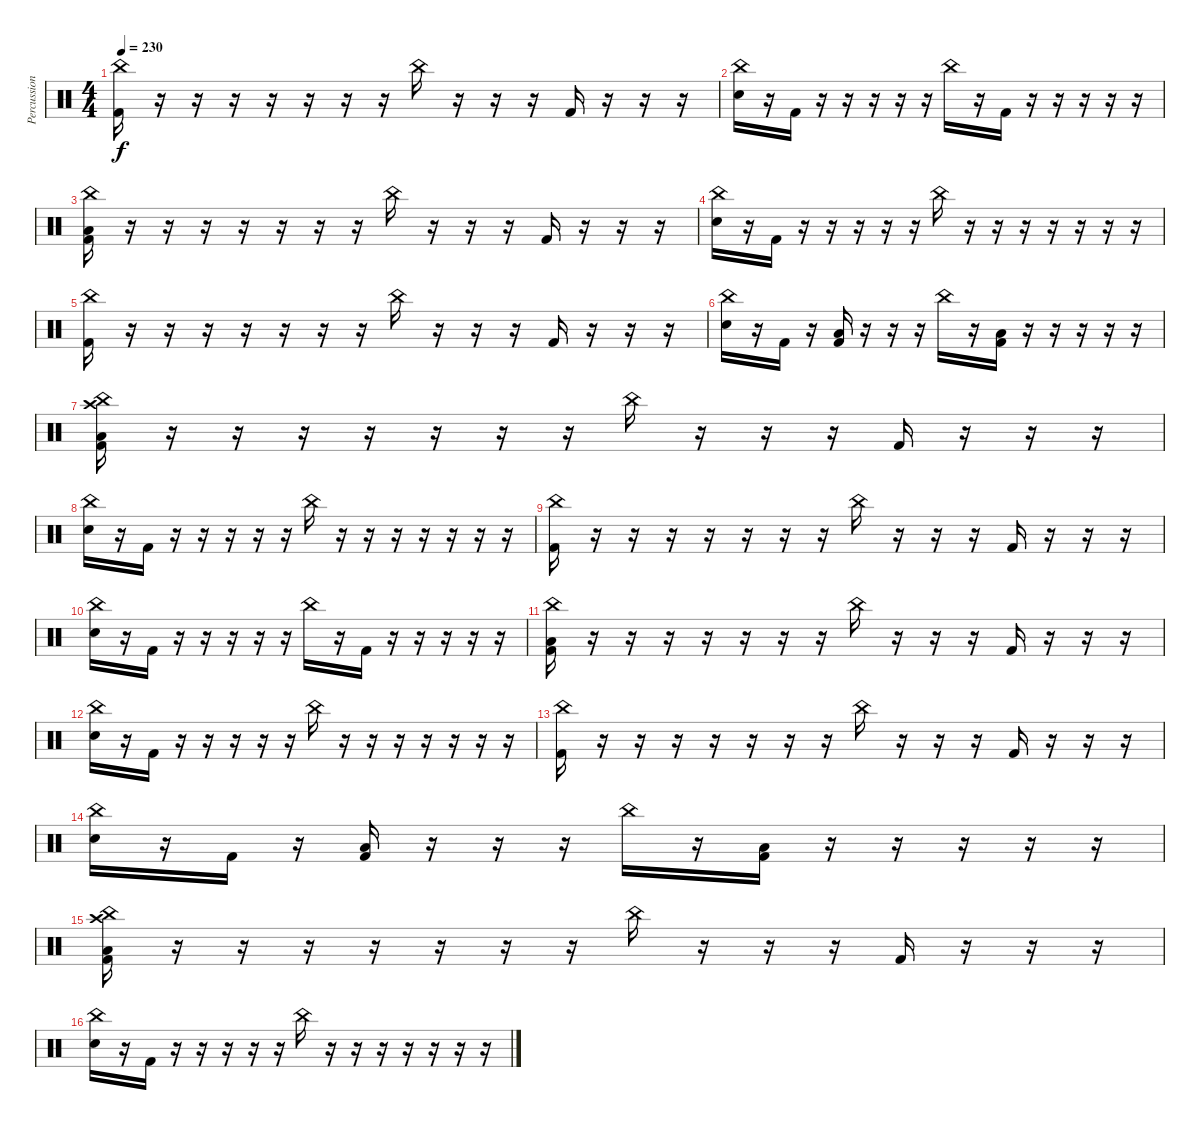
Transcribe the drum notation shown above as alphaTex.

\track ("Percussion" "Percussion") {instrument percussion}
\staff {score}
\articulation defaults
\ts (4 4)
\tempo 230
\clef neutral
\ks c
("China (hit)" "Kick (hit) 2").16{dy f} r.16 r.16 r.16 r.16 r.16 r.16 r.16 "China (hit)".16 r.16 r.16 r.16 "Kick (hit) 2".16 r.16 r.16 r.16 |
("China (hit)" "Electric Snare (hit)").16 r.16 "Kick (hit) 2".16 r.16 r.16 r.16 r.16 r.16 "China (hit)".16 r.16 "Kick (hit) 2".16 r.16 r.16 r.16 r.16 r.16 |
("China (hit)" "Low Floor Tom (hit)" "Kick (hit) 2").16 r.16 r.16 r.16 r.16 r.16 r.16 r.16 "China (hit)".16 r.16 r.16 r.16 "Kick (hit) 2".16 r.16 r.16 r.16 |
("China (hit)" "Electric Snare (hit)").16 r.16 "Kick (hit) 2".16 r.16 r.16 r.16 r.16 r.16 "China (hit)".16 r.16 r.16 r.16 r.16 r.16 r.16 r.16 |
("China (hit)" "Kick (hit) 2").16 r.16 r.16 r.16 r.16 r.16 r.16 r.16 "China (hit)".16 r.16 r.16 r.16 "Kick (hit) 2".16 r.16 r.16 r.16 |
("China (hit)" "Electric Snare (hit)").16 r.16 "Kick (hit) 2".16 r.16 ("Low Floor Tom (hit)" "Kick (hit) 2").16 r.16 r.16 r.16 "China (hit)".16 r.16 ("Low Floor Tom (hit)" "Kick (hit) 2").16 r.16 r.16 r.16 r.16 r.16 |
("China (hit)" "Crash high (hit)" "Low Floor Tom (hit)" "Kick (hit) 2").16 r.16 r.16 r.16 r.16 r.16 r.16 r.16 "China (hit)".16 r.16 r.16 r.16 "Kick (hit) 2".16 r.16 r.16 r.16 |
("China (hit)" "Electric Snare (hit)").16 r.16 "Kick (hit) 2".16 r.16 r.16 r.16 r.16 r.16 "China (hit)".16 r.16 r.16 r.16 r.16 r.16 r.16 r.16 |
("China (hit)" "Kick (hit) 2").16 r.16 r.16 r.16 r.16 r.16 r.16 r.16 "China (hit)".16 r.16 r.16 r.16 "Kick (hit) 2".16 r.16 r.16 r.16 |
("China (hit)" "Electric Snare (hit)").16 r.16 "Kick (hit) 2".16 r.16 r.16 r.16 r.16 r.16 "China (hit)".16 r.16 "Kick (hit) 2".16 r.16 r.16 r.16 r.16 r.16 |
("China (hit)" "Low Floor Tom (hit)" "Kick (hit) 2").16 r.16 r.16 r.16 r.16 r.16 r.16 r.16 "China (hit)".16 r.16 r.16 r.16 "Kick (hit) 2".16 r.16 r.16 r.16 |
("China (hit)" "Electric Snare (hit)").16 r.16 "Kick (hit) 2".16 r.16 r.16 r.16 r.16 r.16 "China (hit)".16 r.16 r.16 r.16 r.16 r.16 r.16 r.16 |
("China (hit)" "Kick (hit) 2").16 r.16 r.16 r.16 r.16 r.16 r.16 r.16 "China (hit)".16 r.16 r.16 r.16 "Kick (hit) 2".16 r.16 r.16 r.16 |
("China (hit)" "Electric Snare (hit)").16 r.16 "Kick (hit) 2".16 r.16 ("Low Floor Tom (hit)" "Kick (hit) 2").16 r.16 r.16 r.16 "China (hit)".16 r.16 ("Low Floor Tom (hit)" "Kick (hit) 2").16 r.16 r.16 r.16 r.16 r.16 |
("China (hit)" "Crash high (hit)" "Low Floor Tom (hit)" "Kick (hit) 2").16 r.16 r.16 r.16 r.16 r.16 r.16 r.16 "China (hit)".16 r.16 r.16 r.16 "Kick (hit) 2".16 r.16 r.16 r.16 |
("China (hit)" "Electric Snare (hit)").16 r.16 "Kick (hit) 2".16 r.16 r.16 r.16 r.16 r.16 "China (hit)".16 r.16 r.16 r.16 r.16 r.16 r.16 r.16
